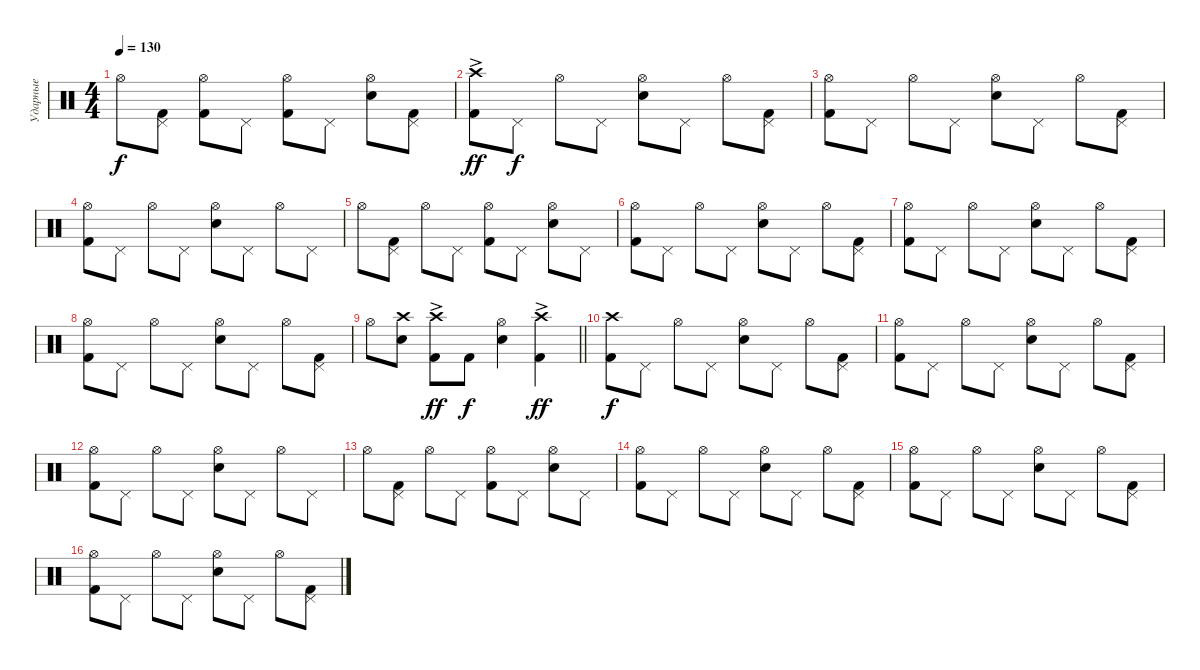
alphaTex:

\track ("Ударные" "Ударные") {instrument percussion}
\staff {score}
\articulation defaults
\ts (4 4)
\tempo 130
\clef neutral
\ks c "Hi-Hat (open)".8{dy f}
("Kick (hit) 2" "Pedal Hi-Hat (hit)").8 ("Kick (hit) 2" "Hi-Hat (open)").8 "Pedal Hi-Hat (hit)".8 ("Kick (hit) 2" "Hi-Hat (open)").8 "Pedal Hi-Hat (hit)".8 ("Snare (hit) 2" "Hi-Hat (open)").8 ("Kick (hit) 2" "Pedal Hi-Hat (hit)").8 |
("Kick (hit) 2" "Crash high (hit)"{ac}).8{dy ff} "Pedal Hi-Hat (hit)".8{dy f} "Hi-Hat (open)".8 "Pedal Hi-Hat (hit)".8 ("Snare (hit) 2" "Hi-Hat (open)").8 "Pedal Hi-Hat (hit)".8 "Hi-Hat (open)".8 ("Kick (hit) 2" "Pedal Hi-Hat (hit)").8 |
("Kick (hit) 2" "Hi-Hat (open)").8 "Pedal Hi-Hat (hit)".8 "Hi-Hat (open)".8 "Pedal Hi-Hat (hit)".8 ("Snare (hit) 2" "Hi-Hat (open)").8 "Pedal Hi-Hat (hit)".8 "Hi-Hat (open)".8 ("Kick (hit) 2" "Pedal Hi-Hat (hit)").8 |
("Kick (hit) 2" "Hi-Hat (open)").8 "Pedal Hi-Hat (hit)".8 "Hi-Hat (open)".8 "Pedal Hi-Hat (hit)".8 ("Snare (hit) 2" "Hi-Hat (open)").8 "Pedal Hi-Hat (hit)".8 "Hi-Hat (open)".8 "Pedal Hi-Hat (hit)".8 |
"Hi-Hat (open)".8 ("Kick (hit) 2" "Pedal Hi-Hat (hit)").8 "Hi-Hat (open)".8 "Pedal Hi-Hat (hit)".8 ("Kick (hit) 2" "Hi-Hat (open)").8 "Pedal Hi-Hat (hit)".8 ("Snare (hit) 2" "Hi-Hat (open)").8 "Pedal Hi-Hat (hit)".8 |
("Kick (hit) 2" "Hi-Hat (open)").8 "Pedal Hi-Hat (hit)".8 "Hi-Hat (open)".8 "Pedal Hi-Hat (hit)".8 ("Snare (hit) 2" "Hi-Hat (open)").8 "Pedal Hi-Hat (hit)".8 "Hi-Hat (open)".8 ("Kick (hit) 2" "Pedal Hi-Hat (hit)").8 |
("Kick (hit) 2" "Hi-Hat (open)").8 "Pedal Hi-Hat (hit)".8 "Hi-Hat (open)".8 "Pedal Hi-Hat (hit)".8 ("Snare (hit) 2" "Hi-Hat (open)").8 "Pedal Hi-Hat (hit)".8 "Hi-Hat (open)".8 ("Kick (hit) 2" "Pedal Hi-Hat (hit)").8 |
("Kick (hit) 2" "Hi-Hat (open)").8 "Pedal Hi-Hat (hit)".8 "Hi-Hat (open)".8 "Pedal Hi-Hat (hit)".8 ("Snare (hit) 2" "Hi-Hat (open)").8 "Pedal Hi-Hat (hit)".8 "Hi-Hat (open)".8 ("Kick (hit) 2" "Pedal Hi-Hat (hit)").8 |
\barLineRight lightlight "Hi-Hat (open)".8
("Snare (hit) 2" "Crash high (hit)").8 ("Kick (hit) 2" "Crash high (hit)"{ac}).8{dy ff} "Kick (hit) 2".8{dy f} ("Snare (hit) 2" "Hi-Hat (open)").4 ("Kick (hit) 2" "Crash high (hit)"{ac}).4{dy ff} |
("Kick (hit) 2" "Crash high (hit)").8{dy f} "Pedal Hi-Hat (hit)".8 "Hi-Hat (open)".8 "Pedal Hi-Hat (hit)".8 ("Snare (hit) 2" "Hi-Hat (open)").8 "Pedal Hi-Hat (hit)".8 "Hi-Hat (open)".8 ("Kick (hit) 2" "Pedal Hi-Hat (hit)").8 |
("Kick (hit) 2" "Hi-Hat (open)").8 "Pedal Hi-Hat (hit)".8 "Hi-Hat (open)".8 "Pedal Hi-Hat (hit)".8 ("Snare (hit) 2" "Hi-Hat (open)").8 "Pedal Hi-Hat (hit)".8 "Hi-Hat (open)".8 ("Kick (hit) 2" "Pedal Hi-Hat (hit)").8 |
("Kick (hit) 2" "Hi-Hat (open)").8 "Pedal Hi-Hat (hit)".8 "Hi-Hat (open)".8 "Pedal Hi-Hat (hit)".8 ("Snare (hit) 2" "Hi-Hat (open)").8 "Pedal Hi-Hat (hit)".8 "Hi-Hat (open)".8 "Pedal Hi-Hat (hit)".8 |
"Hi-Hat (open)".8 ("Kick (hit) 2" "Pedal Hi-Hat (hit)").8 "Hi-Hat (open)".8 "Pedal Hi-Hat (hit)".8 ("Kick (hit) 2" "Hi-Hat (open)").8 "Pedal Hi-Hat (hit)".8 ("Snare (hit) 2" "Hi-Hat (open)").8 "Pedal Hi-Hat (hit)".8 |
("Kick (hit) 2" "Hi-Hat (open)").8 "Pedal Hi-Hat (hit)".8 "Hi-Hat (open)".8 "Pedal Hi-Hat (hit)".8 ("Snare (hit) 2" "Hi-Hat (open)").8 "Pedal Hi-Hat (hit)".8 "Hi-Hat (open)".8 ("Kick (hit) 2" "Pedal Hi-Hat (hit)").8 |
("Kick (hit) 2" "Hi-Hat (open)").8 "Pedal Hi-Hat (hit)".8 "Hi-Hat (open)".8 "Pedal Hi-Hat (hit)".8 ("Snare (hit) 2" "Hi-Hat (open)").8 "Pedal Hi-Hat (hit)".8 "Hi-Hat (open)".8 ("Kick (hit) 2" "Pedal Hi-Hat (hit)").8 |
("Kick (hit) 2" "Hi-Hat (open)").8 "Pedal Hi-Hat (hit)".8 "Hi-Hat (open)".8 "Pedal Hi-Hat (hit)".8 ("Snare (hit) 2" "Hi-Hat (open)").8 "Pedal Hi-Hat (hit)".8 "Hi-Hat (open)".8 ("Kick (hit) 2" "Pedal Hi-Hat (hit)").8
